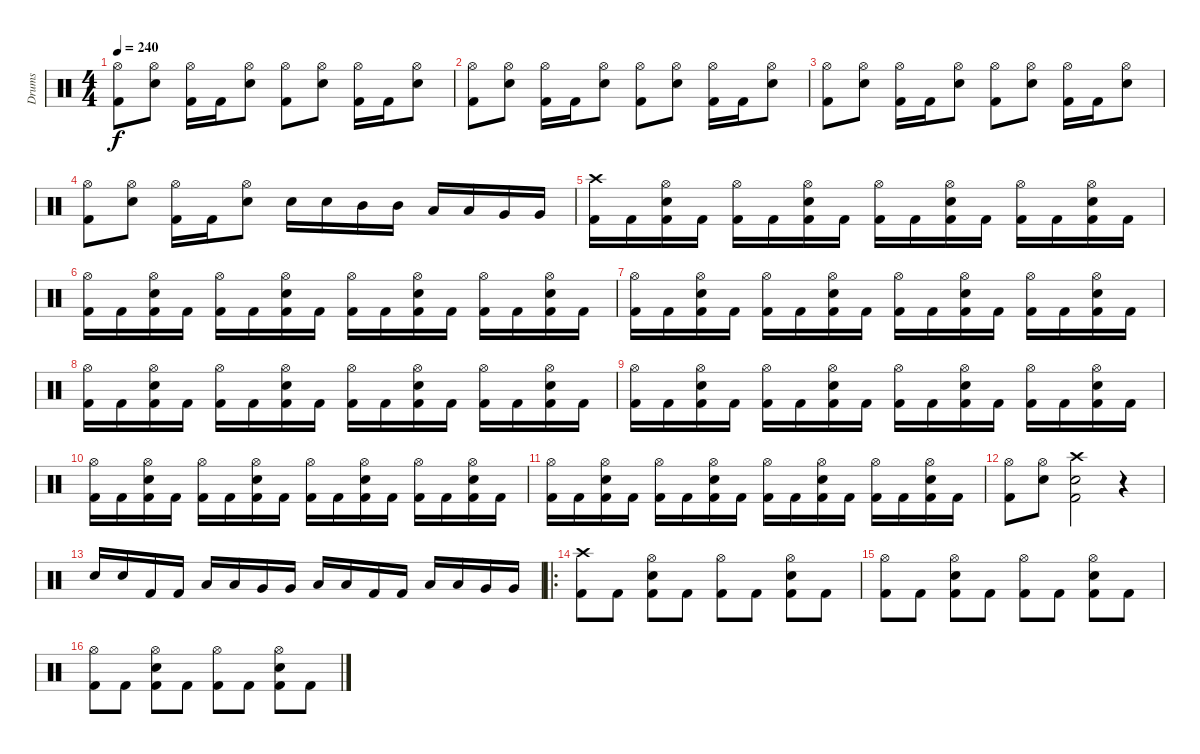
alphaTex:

\track ("Drums" "Drums") {instrument percussion}
\staff {score}
\articulation defaults
\ts (4 4)
\tempo 240
\clef neutral
\ks c
("Hi-Hat (open)" "Kick (hit) 2").8{dy f} ("Hi-Hat (open)" "Snare (hit) 2").8 ("Hi-Hat (open)" "Kick (hit) 2").16 "Kick (hit) 2".16 ("Hi-Hat (open)" "Snare (hit) 2").8 ("Hi-Hat (open)" "Kick (hit) 2").8 ("Hi-Hat (open)" "Snare (hit) 2").8 ("Hi-Hat (open)" "Kick (hit) 2").16 "Kick (hit) 2".16 ("Hi-Hat (open)" "Snare (hit) 2").8 |
("Hi-Hat (open)" "Kick (hit) 2").8 ("Hi-Hat (open)" "Snare (hit) 2").8 ("Hi-Hat (open)" "Kick (hit) 2").16 "Kick (hit) 2".16 ("Hi-Hat (open)" "Snare (hit) 2").8 ("Hi-Hat (open)" "Kick (hit) 2").8 ("Hi-Hat (open)" "Snare (hit) 2").8 ("Hi-Hat (open)" "Kick (hit) 2").16 "Kick (hit) 2".16 ("Hi-Hat (open)" "Snare (hit) 2").8 |
("Hi-Hat (open)" "Kick (hit) 2").8 ("Hi-Hat (open)" "Snare (hit) 2").8 ("Hi-Hat (open)" "Kick (hit) 2").16 "Kick (hit) 2".16 ("Hi-Hat (open)" "Snare (hit) 2").8 ("Hi-Hat (open)" "Kick (hit) 2").8 ("Hi-Hat (open)" "Snare (hit) 2").8 ("Hi-Hat (open)" "Kick (hit) 2").16 "Kick (hit) 2".16 ("Hi-Hat (open)" "Snare (hit) 2").8 |
("Hi-Hat (open)" "Kick (hit) 2").8 ("Hi-Hat (open)" "Snare (hit) 2").8 ("Hi-Hat (open)" "Kick (hit) 2").16 "Kick (hit) 2".16 ("Hi-Hat (open)" "Snare (hit) 2").8 "Snare (hit) 2".16 "Snare (hit) 2".16 "Mid Tom (hit)".16 "Mid Tom (hit)".16 "Low Tom (hit)".16 "Low Tom (hit)".16 "Very Low Tom (hit)".16 "Very Low Tom (hit)".16 |
("Crash high (hit)" "Kick (hit) 2").16 "Kick (hit) 2".16 ("Hi-Hat (open)" "Snare (hit) 2" "Kick (hit) 2").16 "Kick (hit) 2".16 ("Hi-Hat (open)" "Kick (hit) 2").16 "Kick (hit) 2".16 ("Hi-Hat (open)" "Snare (hit) 2" "Kick (hit) 2").16 "Kick (hit) 2".16 ("Hi-Hat (open)" "Kick (hit) 2").16 "Kick (hit) 2".16 ("Hi-Hat (open)" "Snare (hit) 2" "Kick (hit) 2").16 "Kick (hit) 2".16 ("Hi-Hat (open)" "Kick (hit) 2").16 "Kick (hit) 2".16 ("Hi-Hat (open)" "Snare (hit) 2" "Kick (hit) 2").16 "Kick (hit) 2".16 |
("Hi-Hat (open)" "Kick (hit) 2").16 "Kick (hit) 2".16 ("Hi-Hat (open)" "Snare (hit) 2" "Kick (hit) 2").16 "Kick (hit) 2".16 ("Hi-Hat (open)" "Kick (hit) 2").16 "Kick (hit) 2".16 ("Hi-Hat (open)" "Snare (hit) 2" "Kick (hit) 2").16 "Kick (hit) 2".16 ("Hi-Hat (open)" "Kick (hit) 2").16 "Kick (hit) 2".16 ("Hi-Hat (open)" "Snare (hit) 2" "Kick (hit) 2").16 "Kick (hit) 2".16 ("Hi-Hat (open)" "Kick (hit) 2").16 "Kick (hit) 2".16 ("Hi-Hat (open)" "Snare (hit) 2" "Kick (hit) 2").16 "Kick (hit) 2".16 |
("Hi-Hat (open)" "Kick (hit) 2").16 "Kick (hit) 2".16 ("Hi-Hat (open)" "Snare (hit) 2" "Kick (hit) 2").16 "Kick (hit) 2".16 ("Hi-Hat (open)" "Kick (hit) 2").16 "Kick (hit) 2".16 ("Hi-Hat (open)" "Snare (hit) 2" "Kick (hit) 2").16 "Kick (hit) 2".16 ("Hi-Hat (open)" "Kick (hit) 2").16 "Kick (hit) 2".16 ("Hi-Hat (open)" "Snare (hit) 2" "Kick (hit) 2").16 "Kick (hit) 2".16 ("Hi-Hat (open)" "Kick (hit) 2").16 "Kick (hit) 2".16 ("Hi-Hat (open)" "Snare (hit) 2" "Kick (hit) 2").16 "Kick (hit) 2".16 |
("Hi-Hat (open)" "Kick (hit) 2").16 "Kick (hit) 2".16 ("Hi-Hat (open)" "Snare (hit) 2" "Kick (hit) 2").16 "Kick (hit) 2".16 ("Hi-Hat (open)" "Kick (hit) 2").16 "Kick (hit) 2".16 ("Hi-Hat (open)" "Snare (hit) 2" "Kick (hit) 2").16 "Kick (hit) 2".16 ("Hi-Hat (open)" "Kick (hit) 2").16 "Kick (hit) 2".16 ("Hi-Hat (open)" "Snare (hit) 2" "Kick (hit) 2").16 "Kick (hit) 2".16 ("Hi-Hat (open)" "Kick (hit) 2").16 "Kick (hit) 2".16 ("Hi-Hat (open)" "Snare (hit) 2" "Kick (hit) 2").16 "Kick (hit) 2".16 |
("Hi-Hat (open)" "Kick (hit) 2").16 "Kick (hit) 2".16 ("Hi-Hat (open)" "Snare (hit) 2" "Kick (hit) 2").16 "Kick (hit) 2".16 ("Hi-Hat (open)" "Kick (hit) 2").16 "Kick (hit) 2".16 ("Hi-Hat (open)" "Snare (hit) 2" "Kick (hit) 2").16 "Kick (hit) 2".16 ("Hi-Hat (open)" "Kick (hit) 2").16 "Kick (hit) 2".16 ("Hi-Hat (open)" "Snare (hit) 2" "Kick (hit) 2").16 "Kick (hit) 2".16 ("Hi-Hat (open)" "Kick (hit) 2").16 "Kick (hit) 2".16 ("Hi-Hat (open)" "Snare (hit) 2" "Kick (hit) 2").16 "Kick (hit) 2".16 |
("Hi-Hat (open)" "Kick (hit) 2").16 "Kick (hit) 2".16 ("Hi-Hat (open)" "Snare (hit) 2" "Kick (hit) 2").16 "Kick (hit) 2".16 ("Hi-Hat (open)" "Kick (hit) 2").16 "Kick (hit) 2".16 ("Hi-Hat (open)" "Snare (hit) 2" "Kick (hit) 2").16 "Kick (hit) 2".16 ("Hi-Hat (open)" "Kick (hit) 2").16 "Kick (hit) 2".16 ("Hi-Hat (open)" "Snare (hit) 2" "Kick (hit) 2").16 "Kick (hit) 2".16 ("Hi-Hat (open)" "Kick (hit) 2").16 "Kick (hit) 2".16 ("Hi-Hat (open)" "Snare (hit) 2" "Kick (hit) 2").16 "Kick (hit) 2".16 |
("Hi-Hat (open)" "Kick (hit) 2").16 "Kick (hit) 2".16 ("Hi-Hat (open)" "Snare (hit) 2" "Kick (hit) 2").16 "Kick (hit) 2".16 ("Hi-Hat (open)" "Kick (hit) 2").16 "Kick (hit) 2".16 ("Hi-Hat (open)" "Snare (hit) 2" "Kick (hit) 2").16 "Kick (hit) 2".16 ("Hi-Hat (open)" "Kick (hit) 2").16 "Kick (hit) 2".16 ("Hi-Hat (open)" "Snare (hit) 2" "Kick (hit) 2").16 "Kick (hit) 2".16 ("Hi-Hat (open)" "Kick (hit) 2").16 "Kick (hit) 2".16 ("Hi-Hat (open)" "Snare (hit) 2" "Kick (hit) 2").16 "Kick (hit) 2".16 |
("Hi-Hat (open)" "Kick (hit) 2").8 ("Hi-Hat (open)" "Snare (hit) 2").8 ("Crash high (hit)" "Snare (hit) 2" "Kick (hit) 2").2 r.4 |
"Snare (hit) 2".16 "Snare (hit) 2".16 "Kick (hit) 2".16 "Kick (hit) 2".16 "Low Tom (hit)".16 "Low Tom (hit)".16 "Very Low Tom (hit)".16 "Very Low Tom (hit)".16 "Low Tom (hit)".16 "Low Tom (hit)".16 "Kick (hit) 2".16 "Kick (hit) 2".16 "Low Tom (hit)".16 "Low Tom (hit)".16 "Very Low Tom (hit)".16 "Very Low Tom (hit)".16 |
\ro
("Crash high (hit)" "Kick (hit) 2").8 "Kick (hit) 2".8 ("Hi-Hat (open)" "Snare (hit) 2" "Kick (hit) 2").8 "Kick (hit) 2".8 ("Hi-Hat (open)" "Kick (hit) 2").8 "Kick (hit) 2".8 ("Hi-Hat (open)" "Snare (hit) 2" "Kick (hit) 2").8 "Kick (hit) 2".8 |
("Hi-Hat (open)" "Kick (hit) 2").8 "Kick (hit) 2".8 ("Hi-Hat (open)" "Snare (hit) 2" "Kick (hit) 2").8 "Kick (hit) 2".8 ("Hi-Hat (open)" "Kick (hit) 2").8 "Kick (hit) 2".8 ("Hi-Hat (open)" "Snare (hit) 2" "Kick (hit) 2").8 "Kick (hit) 2".8 |
("Hi-Hat (open)" "Kick (hit) 2").8 "Kick (hit) 2".8 ("Hi-Hat (open)" "Snare (hit) 2" "Kick (hit) 2").8 "Kick (hit) 2".8 ("Hi-Hat (open)" "Kick (hit) 2").8 "Kick (hit) 2".8 ("Hi-Hat (open)" "Snare (hit) 2" "Kick (hit) 2").8 "Kick (hit) 2".8
